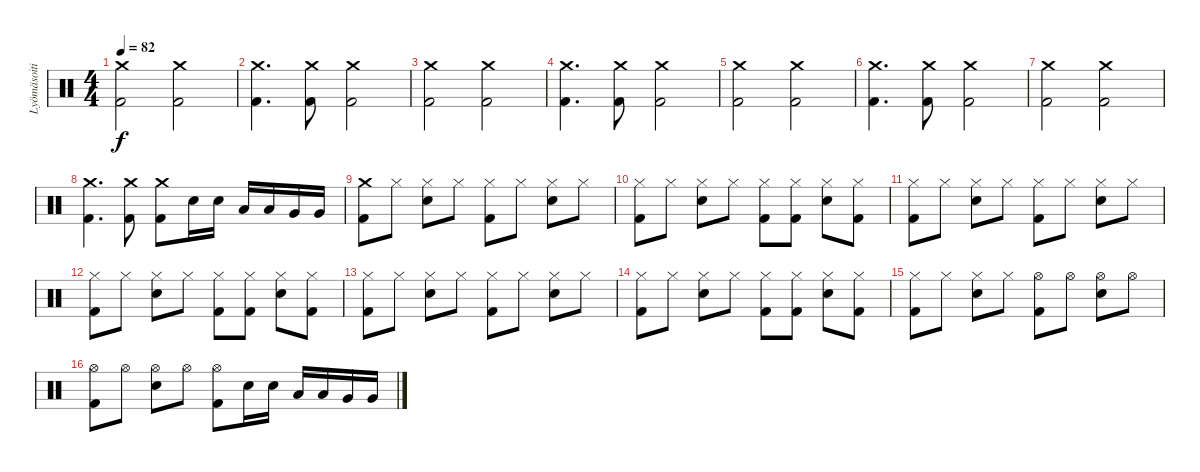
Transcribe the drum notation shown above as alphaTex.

\track ("Lyömäsoitin" "Lyömäsoiti") {instrument percussion}
\staff {score}
\articulation defaults
\ts (4 4)
\tempo 82
\clef neutral
\ks c
("Crash medium (hit)" "Kick (hit) 2").2{dy f} ("Crash medium (hit)" "Kick (hit) 2").2 |
("Crash medium (hit)" "Kick (hit) 2").4{d} ("Crash medium (hit)" "Kick (hit) 2").8 ("Crash medium (hit)" "Kick (hit) 2").2 |
("Crash medium (hit)" "Kick (hit) 2").2 ("Crash medium (hit)" "Kick (hit) 2").2 |
("Crash medium (hit)" "Kick (hit) 2").4{d} ("Crash medium (hit)" "Kick (hit) 2").8 ("Crash medium (hit)" "Kick (hit) 2").2 |
("Crash medium (hit)" "Kick (hit) 2").2 ("Crash medium (hit)" "Kick (hit) 2").2 |
("Crash medium (hit)" "Kick (hit) 2").4{d} ("Crash medium (hit)" "Kick (hit) 2").8 ("Crash medium (hit)" "Kick (hit) 2").2 |
("Crash medium (hit)" "Kick (hit) 2").2 ("Crash medium (hit)" "Kick (hit) 2").2 |
("Crash medium (hit)" "Kick (hit) 2").4{d} ("Crash medium (hit)" "Kick (hit) 2").8 ("Crash medium (hit)" "Kick (hit) 2").8 "Electric Snare (hit)".16 "Electric Snare (hit)".16 "Low Tom (hit)".16 "Low Tom (hit)".16 "Very Low Tom (hit)".16 "Very Low Tom (hit)".16 |
("Crash medium (hit)" "Kick (hit) 2").8 "Hi-Hat (closed)".8 ("Hi-Hat (closed)" "Electric Snare (hit)").8 "Hi-Hat (closed)".8 ("Hi-Hat (closed)" "Kick (hit) 2").8 "Hi-Hat (closed)".8 ("Hi-Hat (closed)" "Electric Snare (hit)").8 "Hi-Hat (closed)".8 |
("Hi-Hat (closed)" "Kick (hit) 2").8 "Hi-Hat (closed)".8 ("Hi-Hat (closed)" "Electric Snare (hit)").8 "Hi-Hat (closed)".8 ("Hi-Hat (closed)" "Kick (hit) 2").8 ("Hi-Hat (closed)" "Kick (hit) 2").8 ("Hi-Hat (closed)" "Electric Snare (hit)").8 ("Hi-Hat (closed)" "Kick (hit) 2").8 |
("Hi-Hat (closed)" "Kick (hit) 2").8 "Hi-Hat (closed)".8 ("Hi-Hat (closed)" "Electric Snare (hit)").8 "Hi-Hat (closed)".8 ("Hi-Hat (closed)" "Kick (hit) 2").8 "Hi-Hat (closed)".8 ("Hi-Hat (closed)" "Electric Snare (hit)").8 "Hi-Hat (closed)".8 |
("Hi-Hat (closed)" "Kick (hit) 2").8 "Hi-Hat (closed)".8 ("Hi-Hat (closed)" "Electric Snare (hit)").8 "Hi-Hat (closed)".8 ("Hi-Hat (closed)" "Kick (hit) 2").8 ("Hi-Hat (closed)" "Kick (hit) 2").8 ("Hi-Hat (closed)" "Electric Snare (hit)").8 ("Hi-Hat (closed)" "Kick (hit) 2").8 |
("Hi-Hat (closed)" "Kick (hit) 2").8 "Hi-Hat (closed)".8 ("Hi-Hat (closed)" "Electric Snare (hit)").8 "Hi-Hat (closed)".8 ("Hi-Hat (closed)" "Kick (hit) 2").8 "Hi-Hat (closed)".8 ("Hi-Hat (closed)" "Electric Snare (hit)").8 "Hi-Hat (closed)".8 |
("Hi-Hat (closed)" "Kick (hit) 2").8 "Hi-Hat (closed)".8 ("Hi-Hat (closed)" "Electric Snare (hit)").8 "Hi-Hat (closed)".8 ("Hi-Hat (closed)" "Kick (hit) 2").8 ("Hi-Hat (closed)" "Kick (hit) 2").8 ("Hi-Hat (closed)" "Electric Snare (hit)").8 ("Hi-Hat (closed)" "Kick (hit) 2").8 |
("Hi-Hat (closed)" "Kick (hit) 2").8 "Hi-Hat (closed)".8 ("Hi-Hat (closed)" "Electric Snare (hit)").8 "Hi-Hat (closed)".8 ("Hi-Hat (open)" "Kick (hit) 2").8 "Hi-Hat (open)".8 ("Hi-Hat (open)" "Electric Snare (hit)").8 "Hi-Hat (open)".8 |
("Hi-Hat (open)" "Kick (hit) 2").8 "Hi-Hat (open)".8 ("Hi-Hat (open)" "Electric Snare (hit)").8 "Hi-Hat (open)".8 ("Hi-Hat (open)" "Kick (hit) 2").8 "Electric Snare (hit)".16 "Electric Snare (hit)".16 "Low Tom (hit)".16 "Low Tom (hit)".16 "Very Low Tom (hit)".16 "Very Low Tom (hit)".16
